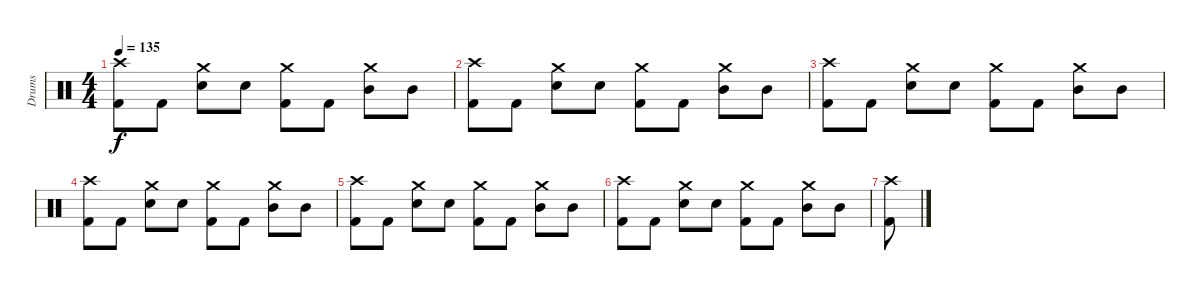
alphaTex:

\track ("Drums" "Drums") {instrument percussion}
\staff {score}
\articulation defaults
\ts (4 4)
\tempo 135
\clef neutral
\ks c
("Kick (hit) 2" "Crash high (hit)").8{dy f} "Kick (hit) 2".8 ("Snare (hit) 2" "Crash medium (hit)").8 "Snare (hit) 2".8 ("Kick (hit) 2" "Crash medium (hit)").8 "Kick (hit) 2".8 ("Mid Tom (hit)" "Crash medium (hit)").8 "Mid Tom (hit)".8 |
("Kick (hit) 2" "Crash high (hit)").8 "Kick (hit) 2".8 ("Snare (hit) 2" "Crash medium (hit)").8 "Snare (hit) 2".8 ("Kick (hit) 2" "Crash medium (hit)").8 "Kick (hit) 2".8 ("Mid Tom (hit)" "Crash medium (hit)").8 "Mid Tom (hit)".8 |
("Kick (hit) 2" "Crash high (hit)").8 "Kick (hit) 2".8 ("Snare (hit) 2" "Crash medium (hit)").8 "Snare (hit) 2".8 ("Kick (hit) 2" "Crash medium (hit)").8 "Kick (hit) 2".8 ("Mid Tom (hit)" "Crash medium (hit)").8 "Mid Tom (hit)".8 |
("Kick (hit) 2" "Crash high (hit)").8 "Kick (hit) 2".8 ("Snare (hit) 2" "Crash medium (hit)").8 "Snare (hit) 2".8 ("Kick (hit) 2" "Crash medium (hit)").8 "Kick (hit) 2".8 ("Mid Tom (hit)" "Crash medium (hit)").8 "Mid Tom (hit)".8 |
("Kick (hit) 2" "Crash high (hit)").8 "Kick (hit) 2".8 ("Snare (hit) 2" "Crash medium (hit)").8 "Snare (hit) 2".8 ("Kick (hit) 2" "Crash medium (hit)").8 "Kick (hit) 2".8 ("Mid Tom (hit)" "Crash medium (hit)").8 "Mid Tom (hit)".8 |
("Kick (hit) 2" "Crash high (hit)").8 "Kick (hit) 2".8 ("Snare (hit) 2" "Crash medium (hit)").8 "Snare (hit) 2".8 ("Kick (hit) 2" "Crash medium (hit)").8 "Kick (hit) 2".8 ("Mid Tom (hit)" "Crash medium (hit)").8 "Mid Tom (hit)".8 |
("Kick (hit) 2" "Crash high (hit)").8
